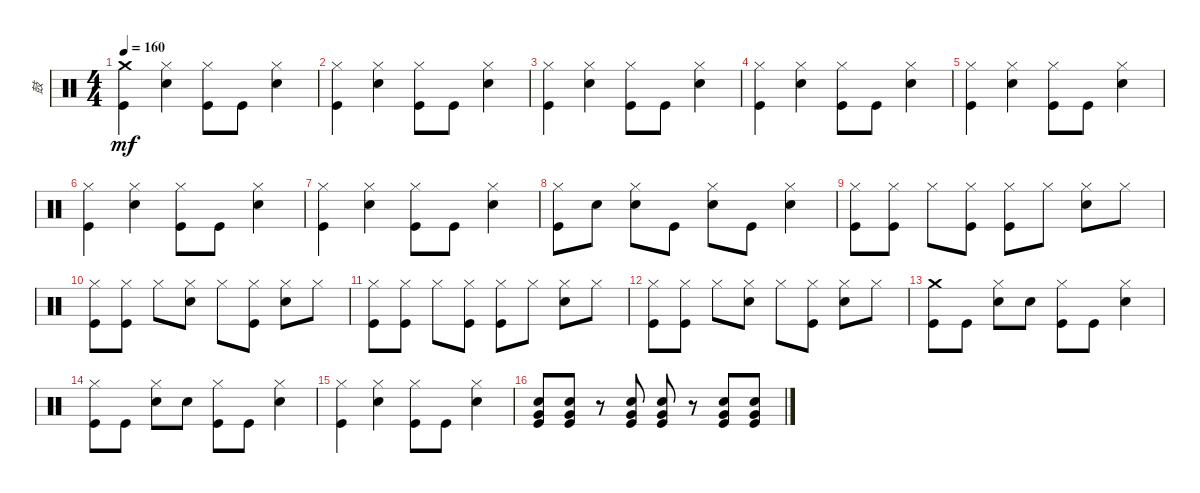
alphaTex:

\track ("鼓" "鼓") {instrument percussion}
\staff {score}
\articulation defaults
\ts (4 4)
\tempo 160
\clef neutral
\ks c
("Kick (hit)" "Crash medium (hit)").4{dy mf} ("Hi-Hat (closed)" "Snare (hit) 2").4 ("Kick (hit)" "Hi-Hat (closed)").8 "Kick (hit)".8 ("Snare (hit) 2" "Hi-Hat (closed)").4 |
("Kick (hit)" "Hi-Hat (closed)").4 ("Hi-Hat (closed)" "Snare (hit) 2").4 ("Kick (hit)" "Hi-Hat (closed)").8 "Kick (hit)".8 ("Snare (hit) 2" "Hi-Hat (closed)").4 |
("Kick (hit)" "Hi-Hat (closed)").4 ("Hi-Hat (closed)" "Snare (hit) 2").4 ("Kick (hit)" "Hi-Hat (closed)").8 "Kick (hit)".8 ("Snare (hit) 2" "Hi-Hat (closed)").4 |
("Kick (hit)" "Hi-Hat (closed)").4 ("Hi-Hat (closed)" "Snare (hit) 2").4 ("Kick (hit)" "Hi-Hat (closed)").8 "Kick (hit)".8 ("Snare (hit) 2" "Hi-Hat (closed)").4 |
("Kick (hit)" "Hi-Hat (closed)").4 ("Hi-Hat (closed)" "Snare (hit) 2").4 ("Kick (hit)" "Hi-Hat (closed)").8 "Kick (hit)".8 ("Snare (hit) 2" "Hi-Hat (closed)").4 |
("Kick (hit)" "Hi-Hat (closed)").4 ("Hi-Hat (closed)" "Snare (hit) 2").4 ("Kick (hit)" "Hi-Hat (closed)").8 "Kick (hit)".8 ("Snare (hit) 2" "Hi-Hat (closed)").4 |
("Kick (hit)" "Hi-Hat (closed)").4 ("Hi-Hat (closed)" "Snare (hit) 2").4 ("Kick (hit)" "Hi-Hat (closed)").8 "Kick (hit)".8 ("Snare (hit) 2" "Hi-Hat (closed)").4 |
("Kick (hit)" "Hi-Hat (closed)").8 "Snare (hit) 2".8 ("Snare (hit) 2" "Hi-Hat (closed)").8 "Kick (hit)".8 ("Snare (hit) 2" "Hi-Hat (closed)").8 "Kick (hit)".8 ("Snare (hit) 2" "Hi-Hat (closed)").4 |
("Kick (hit)" "Hi-Hat (closed)").8 ("Kick (hit)" "Hi-Hat (closed)").8 "Hi-Hat (closed)".8 ("Hi-Hat (closed)" "Kick (hit)").8 ("Hi-Hat (closed)" "Kick (hit)").8 "Hi-Hat (closed)".8 ("Snare (hit) 2" "Hi-Hat (closed)").8 "Hi-Hat (closed)".8 |
("Kick (hit)" "Hi-Hat (closed)").8 ("Kick (hit)" "Hi-Hat (closed)").8 "Hi-Hat (closed)".8 ("Hi-Hat (closed)" "Snare (hit) 2").8 "Hi-Hat (closed)".8 ("Hi-Hat (closed)" "Kick (hit)").8 ("Snare (hit) 2" "Hi-Hat (closed)").8 "Hi-Hat (closed)".8 |
("Kick (hit)" "Hi-Hat (closed)").8 ("Kick (hit)" "Hi-Hat (closed)").8 "Hi-Hat (closed)".8 ("Hi-Hat (closed)" "Kick (hit)").8 ("Hi-Hat (closed)" "Kick (hit)").8 "Hi-Hat (closed)".8 ("Snare (hit) 2" "Hi-Hat (closed)").8 "Hi-Hat (closed)".8 |
("Kick (hit)" "Hi-Hat (closed)").8 ("Kick (hit)" "Hi-Hat (closed)").8 "Hi-Hat (closed)".8 ("Hi-Hat (closed)" "Snare (hit) 2").8 "Hi-Hat (closed)".8 ("Hi-Hat (closed)" "Kick (hit)").8 ("Snare (hit) 2" "Hi-Hat (closed)").8 "Hi-Hat (closed)".8 |
("Crash medium (hit)" "Kick (hit)").8 "Kick (hit)".8 ("Snare (hit) 2" "Hi-Hat (closed)").8 "Snare (hit) 2".8 ("Kick (hit)" "Hi-Hat (closed)").8 "Kick (hit)".8 ("Snare (hit) 2" "Hi-Hat (closed)").4 |
("Kick (hit)" "Hi-Hat (closed)").8 "Kick (hit)".8 ("Snare (hit) 2" "Hi-Hat (closed)").8 "Snare (hit) 2".8 ("Kick (hit)" "Hi-Hat (closed)").8 "Kick (hit)".8 ("Snare (hit) 2" "Hi-Hat (closed)").4 |
("Kick (hit)" "Hi-Hat (closed)").4 ("Hi-Hat (closed)" "Snare (hit) 2").4 ("Kick (hit)" "Hi-Hat (closed)").8 "Kick (hit)".8 ("Snare (hit) 2" "Hi-Hat (closed)").4 |
("Kick (hit)" "Very Low Tom (hit)" "Snare (hit) 2").8 ("Kick (hit)" "Very Low Tom (hit)" "Snare (hit) 2").8 r.8 ("Kick (hit)" "Very Low Tom (hit)" "Snare (hit) 2").8 ("Kick (hit)" "Very Low Tom (hit)" "Snare (hit) 2").8 r.8 ("Kick (hit)" "Very Low Tom (hit)" "Snare (hit) 2").8 ("Kick (hit)" "Very Low Tom (hit)" "Snare (hit) 2").8
